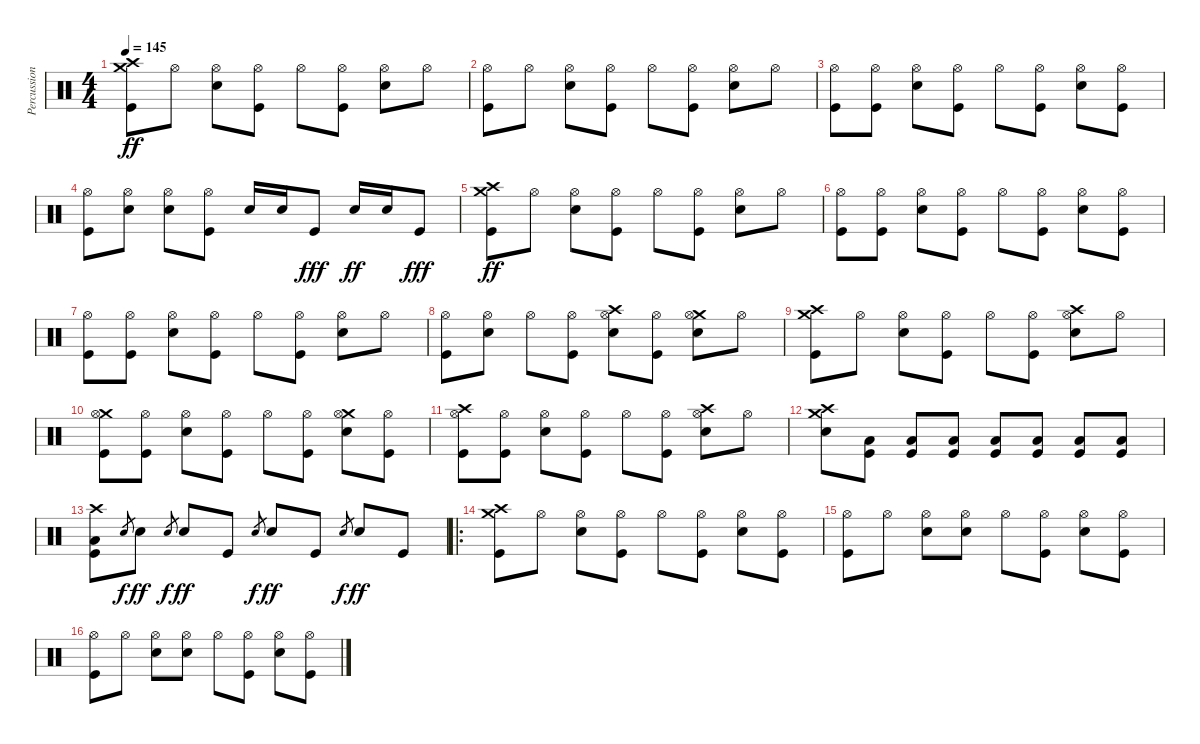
\track ("Percussion" "Percussion") {instrument percussion}
\staff {score}
\articulation defaults
\ts (4 4)
\tempo 145
\clef neutral
\ks c
("Crash high (hit)" "Crash medium (hit)" "Kick (hit)").8{dy ff} "Hi-Hat (open)".8 ("Hi-Hat (open)" "Electric Snare (hit)").8 ("Hi-Hat (open)" "Kick (hit)").8 "Hi-Hat (open)".8 ("Hi-Hat (open)" "Kick (hit)").8 ("Hi-Hat (open)" "Electric Snare (hit)").8 "Hi-Hat (open)".8 |
("Hi-Hat (open)" "Kick (hit)").8 "Hi-Hat (open)".8 ("Hi-Hat (open)" "Electric Snare (hit)").8 ("Hi-Hat (open)" "Kick (hit)").8 "Hi-Hat (open)".8 ("Hi-Hat (open)" "Kick (hit)").8 ("Hi-Hat (open)" "Electric Snare (hit)").8 "Hi-Hat (open)".8 |
("Hi-Hat (open)" "Kick (hit)").8 ("Hi-Hat (open)" "Kick (hit)").8 ("Hi-Hat (open)" "Electric Snare (hit)").8 ("Hi-Hat (open)" "Kick (hit)").8 "Hi-Hat (open)".8 ("Hi-Hat (open)" "Kick (hit)").8 ("Hi-Hat (open)" "Electric Snare (hit)").8 ("Hi-Hat (open)" "Kick (hit)").8 |
("Hi-Hat (open)" "Kick (hit)").8 ("Hi-Hat (open)" "Electric Snare (hit)").8 ("Hi-Hat (open)" "Electric Snare (hit)").8 ("Hi-Hat (open)" "Kick (hit)").8 "Electric Snare (hit)".16 "Electric Snare (hit)".16 "Kick (hit)".8{dy fff} "Electric Snare (hit)".16{dy ff} "Electric Snare (hit)".16 "Kick (hit)".8{dy fff} |
("Crash high (hit)" "Crash medium (hit)" "Kick (hit)").8{dy ff} "Hi-Hat (open)".8 ("Hi-Hat (open)" "Electric Snare (hit)").8 ("Hi-Hat (open)" "Kick (hit)").8 "Hi-Hat (open)".8 ("Hi-Hat (open)" "Kick (hit)").8 ("Hi-Hat (open)" "Electric Snare (hit)").8 "Hi-Hat (open)".8 |
("Hi-Hat (open)" "Kick (hit)").8 ("Hi-Hat (open)" "Kick (hit)").8 ("Hi-Hat (open)" "Electric Snare (hit)").8 ("Hi-Hat (open)" "Kick (hit)").8 "Hi-Hat (open)".8 ("Hi-Hat (open)" "Kick (hit)").8 ("Hi-Hat (open)" "Electric Snare (hit)").8 ("Hi-Hat (open)" "Kick (hit)").8 |
("Hi-Hat (open)" "Kick (hit)").8 ("Hi-Hat (open)" "Kick (hit)").8 ("Hi-Hat (open)" "Electric Snare (hit)").8 ("Hi-Hat (open)" "Kick (hit)").8 "Hi-Hat (open)".8 ("Hi-Hat (open)" "Kick (hit)").8 ("Hi-Hat (open)" "Electric Snare (hit)").8 "Hi-Hat (open)".8 |
("Hi-Hat (open)" "Kick (hit)").8 ("Hi-Hat (open)" "Electric Snare (hit)").8 "Hi-Hat (open)".8 ("Hi-Hat (open)" "Kick (hit)").8 ("Crash high (hit)" "Hi-Hat (open)" "Electric Snare (hit)").8 ("Hi-Hat (open)" "Kick (hit)").8 ("Crash medium (hit)" "Hi-Hat (open)" "Electric Snare (hit)").8 "Hi-Hat (open)".8 |
("Crash high (hit)" "Crash medium (hit)" "Kick (hit)").8 "Hi-Hat (open)".8 ("Hi-Hat (open)" "Electric Snare (hit)").8 ("Hi-Hat (open)" "Kick (hit)").8 "Hi-Hat (open)".8 ("Hi-Hat (open)" "Kick (hit)").8 ("Crash high (hit)" "Hi-Hat (open)" "Electric Snare (hit)").8 "Hi-Hat (open)".8 |
("Crash medium (hit)" "Hi-Hat (open)" "Kick (hit)").8 ("Hi-Hat (open)" "Kick (hit)").8 ("Hi-Hat (open)" "Electric Snare (hit)").8 ("Hi-Hat (open)" "Kick (hit)").8 "Hi-Hat (open)".8 ("Hi-Hat (open)" "Kick (hit)").8 ("Crash medium (hit)" "Hi-Hat (open)" "Electric Snare (hit)").8 ("Hi-Hat (open)" "Kick (hit)").8 |
("Crash high (hit)" "Hi-Hat (open)" "Kick (hit)").8 ("Hi-Hat (open)" "Kick (hit)").8 ("Hi-Hat (open)" "Electric Snare (hit)").8 ("Hi-Hat (open)" "Kick (hit)").8 "Hi-Hat (open)".8 ("Hi-Hat (open)" "Kick (hit)").8 ("Crash high (hit)" "Hi-Hat (open)" "Electric Snare (hit)").8 "Hi-Hat (open)".8 |
("Crash medium (hit)" "Crash high (hit)" "Electric Snare (hit)").8 ("Low Tom (hit)" "Kick (hit)").8 ("Low Tom (hit)" "Kick (hit)").8 ("Low Tom (hit)" "Kick (hit)").8 ("Low Tom (hit)" "Kick (hit)").8 ("Low Tom (hit)" "Kick (hit)").8 ("Low Tom (hit)" "Kick (hit)").8 ("Low Tom (hit)" "Kick (hit)").8 |
("Crash high (hit)" "Low Tom (hit)" "Kick (hit)").8 "Electric Snare (hit)".8{gr dy f} "Electric Snare (hit)".8{dy ff} "Electric Snare (hit)".8{gr dy f} "Electric Snare (hit)".8{dy ff} "Kick (hit)".8 "Electric Snare (hit)".8{gr dy f} "Electric Snare (hit)".8{dy ff} "Kick (hit)".8 "Electric Snare (hit)".8{gr dy f} "Electric Snare (hit)".8{dy ff} "Kick (hit)".8 |
\ro
("Crash medium (hit)" "Crash high (hit)" "Kick (hit)").8 "Hi-Hat (open)".8 ("Hi-Hat (open)" "Electric Snare (hit)").8 ("Hi-Hat (open)" "Kick (hit)").8 "Hi-Hat (open)".8 ("Hi-Hat (open)" "Kick (hit)").8 ("Hi-Hat (open)" "Electric Snare (hit)").8 ("Hi-Hat (open)" "Kick (hit)").8 |
("Hi-Hat (open)" "Kick (hit)").8 "Hi-Hat (open)".8 ("Hi-Hat (open)" "Electric Snare (hit)").8 ("Hi-Hat (open)" "Electric Snare (hit)").8 "Hi-Hat (open)".8 ("Hi-Hat (open)" "Kick (hit)").8 ("Hi-Hat (open)" "Electric Snare (hit)").8 ("Hi-Hat (open)" "Kick (hit)").8 |
("Hi-Hat (open)" "Kick (hit)").8 "Hi-Hat (open)".8 ("Hi-Hat (open)" "Electric Snare (hit)").8 ("Hi-Hat (open)" "Electric Snare (hit)").8 "Hi-Hat (open)".8 ("Hi-Hat (open)" "Kick (hit)").8 ("Hi-Hat (open)" "Electric Snare (hit)").8 ("Hi-Hat (open)" "Kick (hit)").8
